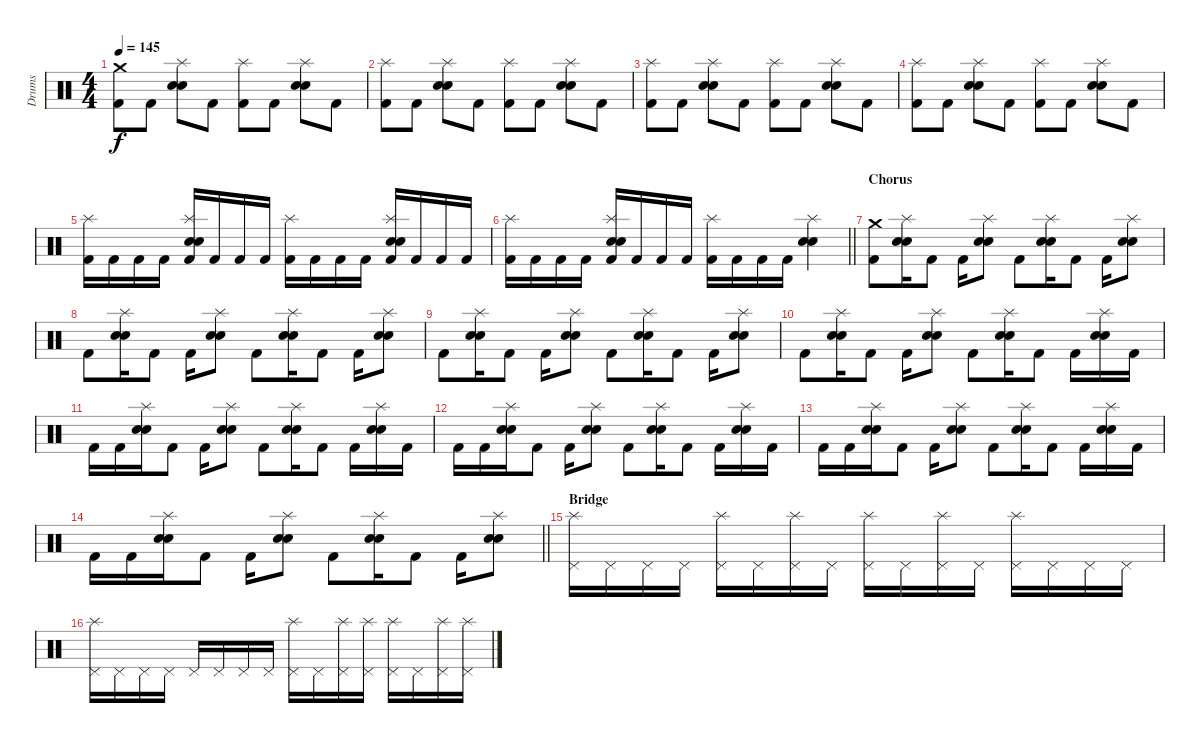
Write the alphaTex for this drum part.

\track ("Drums" "Drums") {instrument percussion}
\staff {score}
\articulation defaults
\ts (4 4)
\tempo 145
\clef neutral
\ks c
("Crash medium (hit)" "Kick (hit) 2").8{dy f} "Kick (hit) 2".8 ("Splash (hit)" "Electric Snare (hit)" "Snare (hit) 2").8 "Kick (hit) 2".8 ("Splash (hit)" "Kick (hit) 2").8 "Kick (hit) 2".8 ("Splash (hit)" "Electric Snare (hit)" "Snare (hit) 2").8 "Kick (hit) 2".8 |
("Splash (hit)" "Kick (hit) 2").8 "Kick (hit) 2".8 ("Splash (hit)" "Electric Snare (hit)" "Snare (hit) 2").8 "Kick (hit) 2".8 ("Splash (hit)" "Kick (hit) 2").8 "Kick (hit) 2".8 ("Splash (hit)" "Electric Snare (hit)" "Snare (hit) 2").8 "Kick (hit) 2".8 |
("Splash (hit)" "Kick (hit) 2").8 "Kick (hit) 2".8 ("Splash (hit)" "Electric Snare (hit)" "Snare (hit) 2").8 "Kick (hit) 2".8 ("Splash (hit)" "Kick (hit) 2").8 "Kick (hit) 2".8 ("Splash (hit)" "Electric Snare (hit)" "Snare (hit) 2").8 "Kick (hit) 2".8 |
("Splash (hit)" "Kick (hit) 2").8 "Kick (hit) 2".8 ("Splash (hit)" "Electric Snare (hit)" "Snare (hit) 2").8 "Kick (hit) 2".8 ("Splash (hit)" "Kick (hit) 2").8 "Kick (hit) 2".8 ("Splash (hit)" "Electric Snare (hit)" "Snare (hit) 2").8 "Kick (hit) 2".8 |
("Splash (hit)" "Kick (hit) 2").16 "Kick (hit) 2".16 "Kick (hit) 2".16 "Kick (hit) 2".16 ("Splash (hit)" "Electric Snare (hit)" "Snare (hit) 2" "Kick (hit) 2").16 "Kick (hit) 2".16 "Kick (hit) 2".16 "Kick (hit) 2".16 ("Splash (hit)" "Kick (hit) 2").16 "Kick (hit) 2".16 "Kick (hit) 2".16 "Kick (hit) 2".16 ("Splash (hit)" "Electric Snare (hit)" "Snare (hit) 2" "Kick (hit) 2").16 "Kick (hit) 2".16 "Kick (hit) 2".16 "Kick (hit) 2".16 |
\barLineRight lightlight
("Splash (hit)" "Kick (hit) 2").16 "Kick (hit) 2".16 "Kick (hit) 2".16 "Kick (hit) 2".16 ("Splash (hit)" "Electric Snare (hit)" "Snare (hit) 2" "Kick (hit) 2").16 "Kick (hit) 2".16 "Kick (hit) 2".16 "Kick (hit) 2".16 ("Splash (hit)" "Kick (hit) 2").16 "Kick (hit) 2".16 "Kick (hit) 2".16 "Kick (hit) 2".16 ("Splash (hit)" "Electric Snare (hit)" "Snare (hit) 2").4 |
\section ("" "Chorus")
("Crash medium (hit)" "Kick (hit) 2").8 ("Splash (hit)" "Electric Snare (hit)" "Snare (hit) 2").16 "Kick (hit) 2".8 "Kick (hit) 2".16 ("Splash (hit)" "Electric Snare (hit)" "Snare (hit) 2").8 "Kick (hit) 2".8 ("Splash (hit)" "Electric Snare (hit)" "Snare (hit) 2").16 "Kick (hit) 2".8 "Kick (hit) 2".16 ("Splash (hit)" "Electric Snare (hit)" "Snare (hit) 2").8 |
"Kick (hit) 2".8 ("Splash (hit)" "Electric Snare (hit)" "Snare (hit) 2").16 "Kick (hit) 2".8 "Kick (hit) 2".16 ("Splash (hit)" "Electric Snare (hit)" "Snare (hit) 2").8 "Kick (hit) 2".8 ("Splash (hit)" "Electric Snare (hit)" "Snare (hit) 2").16 "Kick (hit) 2".8 "Kick (hit) 2".16 ("Splash (hit)" "Electric Snare (hit)" "Snare (hit) 2").8 |
"Kick (hit) 2".8 ("Splash (hit)" "Electric Snare (hit)" "Snare (hit) 2").16 "Kick (hit) 2".8 "Kick (hit) 2".16 ("Splash (hit)" "Electric Snare (hit)" "Snare (hit) 2").8 "Kick (hit) 2".8 ("Splash (hit)" "Electric Snare (hit)" "Snare (hit) 2").16 "Kick (hit) 2".8 "Kick (hit) 2".16 ("Splash (hit)" "Electric Snare (hit)" "Snare (hit) 2").8 |
"Kick (hit) 2".8 ("Splash (hit)" "Electric Snare (hit)" "Snare (hit) 2").16 "Kick (hit) 2".8 "Kick (hit) 2".16 ("Splash (hit)" "Electric Snare (hit)" "Snare (hit) 2").8 "Kick (hit) 2".8 ("Splash (hit)" "Electric Snare (hit)" "Snare (hit) 2").16 "Kick (hit) 2".8 "Kick (hit) 2".16 ("Splash (hit)" "Electric Snare (hit)" "Snare (hit) 2").16 "Kick (hit) 2".16 |
"Kick (hit) 2".16 "Kick (hit) 2".16 ("Splash (hit)" "Electric Snare (hit)" "Snare (hit) 2").16 "Kick (hit) 2".8 "Kick (hit) 2".16 ("Splash (hit)" "Electric Snare (hit)" "Snare (hit) 2").8 "Kick (hit) 2".8 ("Splash (hit)" "Electric Snare (hit)" "Snare (hit) 2").16 "Kick (hit) 2".8 "Kick (hit) 2".16 ("Splash (hit)" "Electric Snare (hit)" "Snare (hit) 2").16 "Kick (hit) 2".16 |
"Kick (hit) 2".16 "Kick (hit) 2".16 ("Splash (hit)" "Electric Snare (hit)" "Snare (hit) 2").16 "Kick (hit) 2".8 "Kick (hit) 2".16 ("Splash (hit)" "Electric Snare (hit)" "Snare (hit) 2").8 "Kick (hit) 2".8 ("Splash (hit)" "Electric Snare (hit)" "Snare (hit) 2").16 "Kick (hit) 2".8 "Kick (hit) 2".16 ("Splash (hit)" "Electric Snare (hit)" "Snare (hit) 2").16 "Kick (hit) 2".16 |
"Kick (hit) 2".16 "Kick (hit) 2".16 ("Splash (hit)" "Electric Snare (hit)" "Snare (hit) 2").16 "Kick (hit) 2".8 "Kick (hit) 2".16 ("Splash (hit)" "Electric Snare (hit)" "Snare (hit) 2").8 "Kick (hit) 2".8 ("Splash (hit)" "Electric Snare (hit)" "Snare (hit) 2").16 "Kick (hit) 2".8 "Kick (hit) 2".16 ("Splash (hit)" "Electric Snare (hit)" "Snare (hit) 2").16 "Kick (hit) 2".16 |
\barLineRight lightlight "Kick (hit) 2".16 "Kick (hit) 2".16
("Splash (hit)" "Electric Snare (hit)" "Snare (hit) 2").16 "Kick (hit) 2".8 "Kick (hit) 2".16 ("Splash (hit)" "Electric Snare (hit)" "Snare (hit) 2").8 "Kick (hit) 2".8 ("Splash (hit)" "Electric Snare (hit)" "Snare (hit) 2").16 "Kick (hit) 2".8 "Kick (hit) 2".16 ("Splash (hit)" "Electric Snare (hit)" "Snare (hit) 2").8 |
\section ("" "Bridge")
("Splash (hit)" "Pedal Hi-Hat (hit)").16 "Pedal Hi-Hat (hit)".16 "Pedal Hi-Hat (hit)".16 "Pedal Hi-Hat (hit)".16 ("Splash (hit)" "Pedal Hi-Hat (hit)").16 "Pedal Hi-Hat (hit)".16 ("Splash (hit)" "Pedal Hi-Hat (hit)").16 "Pedal Hi-Hat (hit)".16 ("Splash (hit)" "Pedal Hi-Hat (hit)").16 "Pedal Hi-Hat (hit)".16 ("Splash (hit)" "Pedal Hi-Hat (hit)").16 "Pedal Hi-Hat (hit)".16 ("Splash (hit)" "Pedal Hi-Hat (hit)").16 "Pedal Hi-Hat (hit)".16 "Pedal Hi-Hat (hit)".16 "Pedal Hi-Hat (hit)".16 |
("Splash (hit)" "Pedal Hi-Hat (hit)").16 "Pedal Hi-Hat (hit)".16 "Pedal Hi-Hat (hit)".16 "Pedal Hi-Hat (hit)".16 "Pedal Hi-Hat (hit)".16 "Pedal Hi-Hat (hit)".16 "Pedal Hi-Hat (hit)".16 "Pedal Hi-Hat (hit)".16 ("Splash (hit)" "Pedal Hi-Hat (hit)").16 "Pedal Hi-Hat (hit)".16 ("Splash (hit)" "Pedal Hi-Hat (hit)").16 ("Splash (hit)" "Pedal Hi-Hat (hit)").16 ("Splash (hit)" "Pedal Hi-Hat (hit)").16 "Pedal Hi-Hat (hit)".16 ("Splash (hit)" "Pedal Hi-Hat (hit)").16 ("Splash (hit)" "Pedal Hi-Hat (hit)").16
